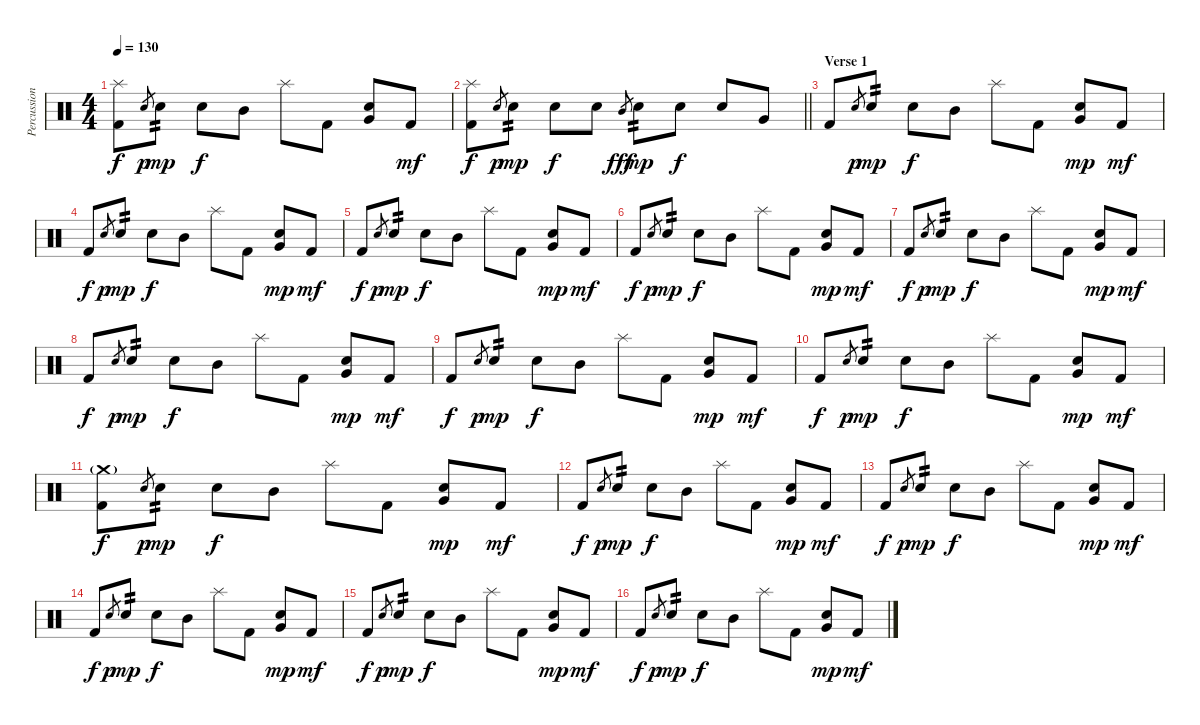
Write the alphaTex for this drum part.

\track ("Percussion" "Percussion") {instrument percussion}
\staff {score}
\articulation defaults
\ts (4 4)
\tempo 130
\clef neutral
\ks c
("Splash (hit)" "Kick (hit) 2").8{dy f} "Electric Snare (hit)".8{gr dy p} "Electric Snare (hit)".8{tp 2 dy mp} "Electric Snare (hit)".8{dy f} "Mid Tom (hit)".8 "Splash (hit)".8 "Kick (hit) 2".8 ("Electric Snare (hit)" "Very Low Tom (hit)").8 "Kick (hit) 2".8{dy mf} |
\barLineRight lightlight
("Splash (hit)" "Kick (hit) 2").8{dy f} "Electric Snare (hit)".8{gr dy p} "Electric Snare (hit)".8{tp 2 dy mp} "Electric Snare (hit)".8{dy f} "Electric Snare (hit)".8 "Mid Tom (hit)".8{gr dy fff} "Electric Snare (hit)".8{tp 2 dy mp} "Electric Snare (hit)".8{dy f} "Electric Snare (hit)".8 "Very Low Tom (hit)".8 |
\section ("" "Verse 1")
"Kick (hit) 2".8 "Electric Snare (hit)".8{gr dy p} "Electric Snare (hit)".8{tp 2 dy mp} "Electric Snare (hit)".8{dy f} "Mid Tom (hit)".8 "Splash (hit)".8 "Kick (hit) 2".8 ("Electric Snare (hit)" "Very Low Tom (hit)").8{dy mp} "Kick (hit) 2".8{dy mf} |
"Kick (hit) 2".8{dy f} "Electric Snare (hit)".8{gr dy p} "Electric Snare (hit)".8{tp 2 dy mp} "Electric Snare (hit)".8{dy f} "Mid Tom (hit)".8 "Splash (hit)".8 "Kick (hit) 2".8 ("Electric Snare (hit)" "Very Low Tom (hit)").8{dy mp} "Kick (hit) 2".8{dy mf} |
"Kick (hit) 2".8{dy f} "Electric Snare (hit)".8{gr dy p} "Electric Snare (hit)".8{tp 2 dy mp} "Electric Snare (hit)".8{dy f} "Mid Tom (hit)".8 "Splash (hit)".8 "Kick (hit) 2".8 ("Electric Snare (hit)" "Very Low Tom (hit)").8{dy mp} "Kick (hit) 2".8{dy mf} |
"Kick (hit) 2".8{dy f} "Electric Snare (hit)".8{gr dy p} "Electric Snare (hit)".8{tp 2 dy mp} "Electric Snare (hit)".8{dy f} "Mid Tom (hit)".8 "Splash (hit)".8 "Kick (hit) 2".8 ("Electric Snare (hit)" "Very Low Tom (hit)").8{dy mp} "Kick (hit) 2".8{dy mf} |
"Kick (hit) 2".8{dy f} "Electric Snare (hit)".8{gr dy p} "Electric Snare (hit)".8{tp 2 dy mp} "Electric Snare (hit)".8{dy f} "Mid Tom (hit)".8 "Splash (hit)".8 "Kick (hit) 2".8 ("Electric Snare (hit)" "Very Low Tom (hit)").8{dy mp} "Kick (hit) 2".8{dy mf} |
"Kick (hit) 2".8{dy f} "Electric Snare (hit)".8{gr dy p} "Electric Snare (hit)".8{tp 2 dy mp} "Electric Snare (hit)".8{dy f} "Mid Tom (hit)".8 "Splash (hit)".8 "Kick (hit) 2".8 ("Electric Snare (hit)" "Very Low Tom (hit)").8{dy mp} "Kick (hit) 2".8{dy mf} |
"Kick (hit) 2".8{dy f} "Electric Snare (hit)".8{gr dy p} "Electric Snare (hit)".8{tp 2 dy mp} "Electric Snare (hit)".8{dy f} "Mid Tom (hit)".8 "Splash (hit)".8 "Kick (hit) 2".8 ("Electric Snare (hit)" "Very Low Tom (hit)").8{dy mp} "Kick (hit) 2".8{dy mf} |
"Kick (hit) 2".8{dy f} "Electric Snare (hit)".8{gr dy p} "Electric Snare (hit)".8{tp 2 dy mp} "Electric Snare (hit)".8{dy f} "Mid Tom (hit)".8 "Splash (hit)".8 "Kick (hit) 2".8 ("Electric Snare (hit)" "Very Low Tom (hit)").8{dy mp} "Kick (hit) 2".8{dy mf} |
("Crash medium (hit)"{g} "Kick (hit) 2").8{dy f} "Electric Snare (hit)".8{gr dy p} "Electric Snare (hit)".8{tp 2 dy mp} "Electric Snare (hit)".8{dy f} "Mid Tom (hit)".8 "Splash (hit)".8 "Kick (hit) 2".8 ("Electric Snare (hit)" "Very Low Tom (hit)").8{dy mp} "Kick (hit) 2".8{dy mf} |
"Kick (hit) 2".8{dy f} "Electric Snare (hit)".8{gr dy p} "Electric Snare (hit)".8{tp 2 dy mp} "Electric Snare (hit)".8{dy f} "Mid Tom (hit)".8 "Splash (hit)".8 "Kick (hit) 2".8 ("Electric Snare (hit)" "Very Low Tom (hit)").8{dy mp} "Kick (hit) 2".8{dy mf} |
"Kick (hit) 2".8{dy f} "Electric Snare (hit)".8{gr dy p} "Electric Snare (hit)".8{tp 2 dy mp} "Electric Snare (hit)".8{dy f} "Mid Tom (hit)".8 "Splash (hit)".8 "Kick (hit) 2".8 ("Electric Snare (hit)" "Very Low Tom (hit)").8{dy mp} "Kick (hit) 2".8{dy mf} |
"Kick (hit) 2".8{dy f} "Electric Snare (hit)".8{gr dy p} "Electric Snare (hit)".8{tp 2 dy mp} "Electric Snare (hit)".8{dy f} "Mid Tom (hit)".8 "Splash (hit)".8 "Kick (hit) 2".8 ("Electric Snare (hit)" "Very Low Tom (hit)").8{dy mp} "Kick (hit) 2".8{dy mf} |
"Kick (hit) 2".8{dy f} "Electric Snare (hit)".8{gr dy p} "Electric Snare (hit)".8{tp 2 dy mp} "Electric Snare (hit)".8{dy f} "Mid Tom (hit)".8 "Splash (hit)".8 "Kick (hit) 2".8 ("Electric Snare (hit)" "Very Low Tom (hit)").8{dy mp} "Kick (hit) 2".8{dy mf} |
"Kick (hit) 2".8{dy f} "Electric Snare (hit)".8{gr dy p} "Electric Snare (hit)".8{tp 2 dy mp} "Electric Snare (hit)".8{dy f} "Mid Tom (hit)".8 "Splash (hit)".8 "Kick (hit) 2".8 ("Electric Snare (hit)" "Very Low Tom (hit)").8{dy mp} "Kick (hit) 2".8{dy mf}
